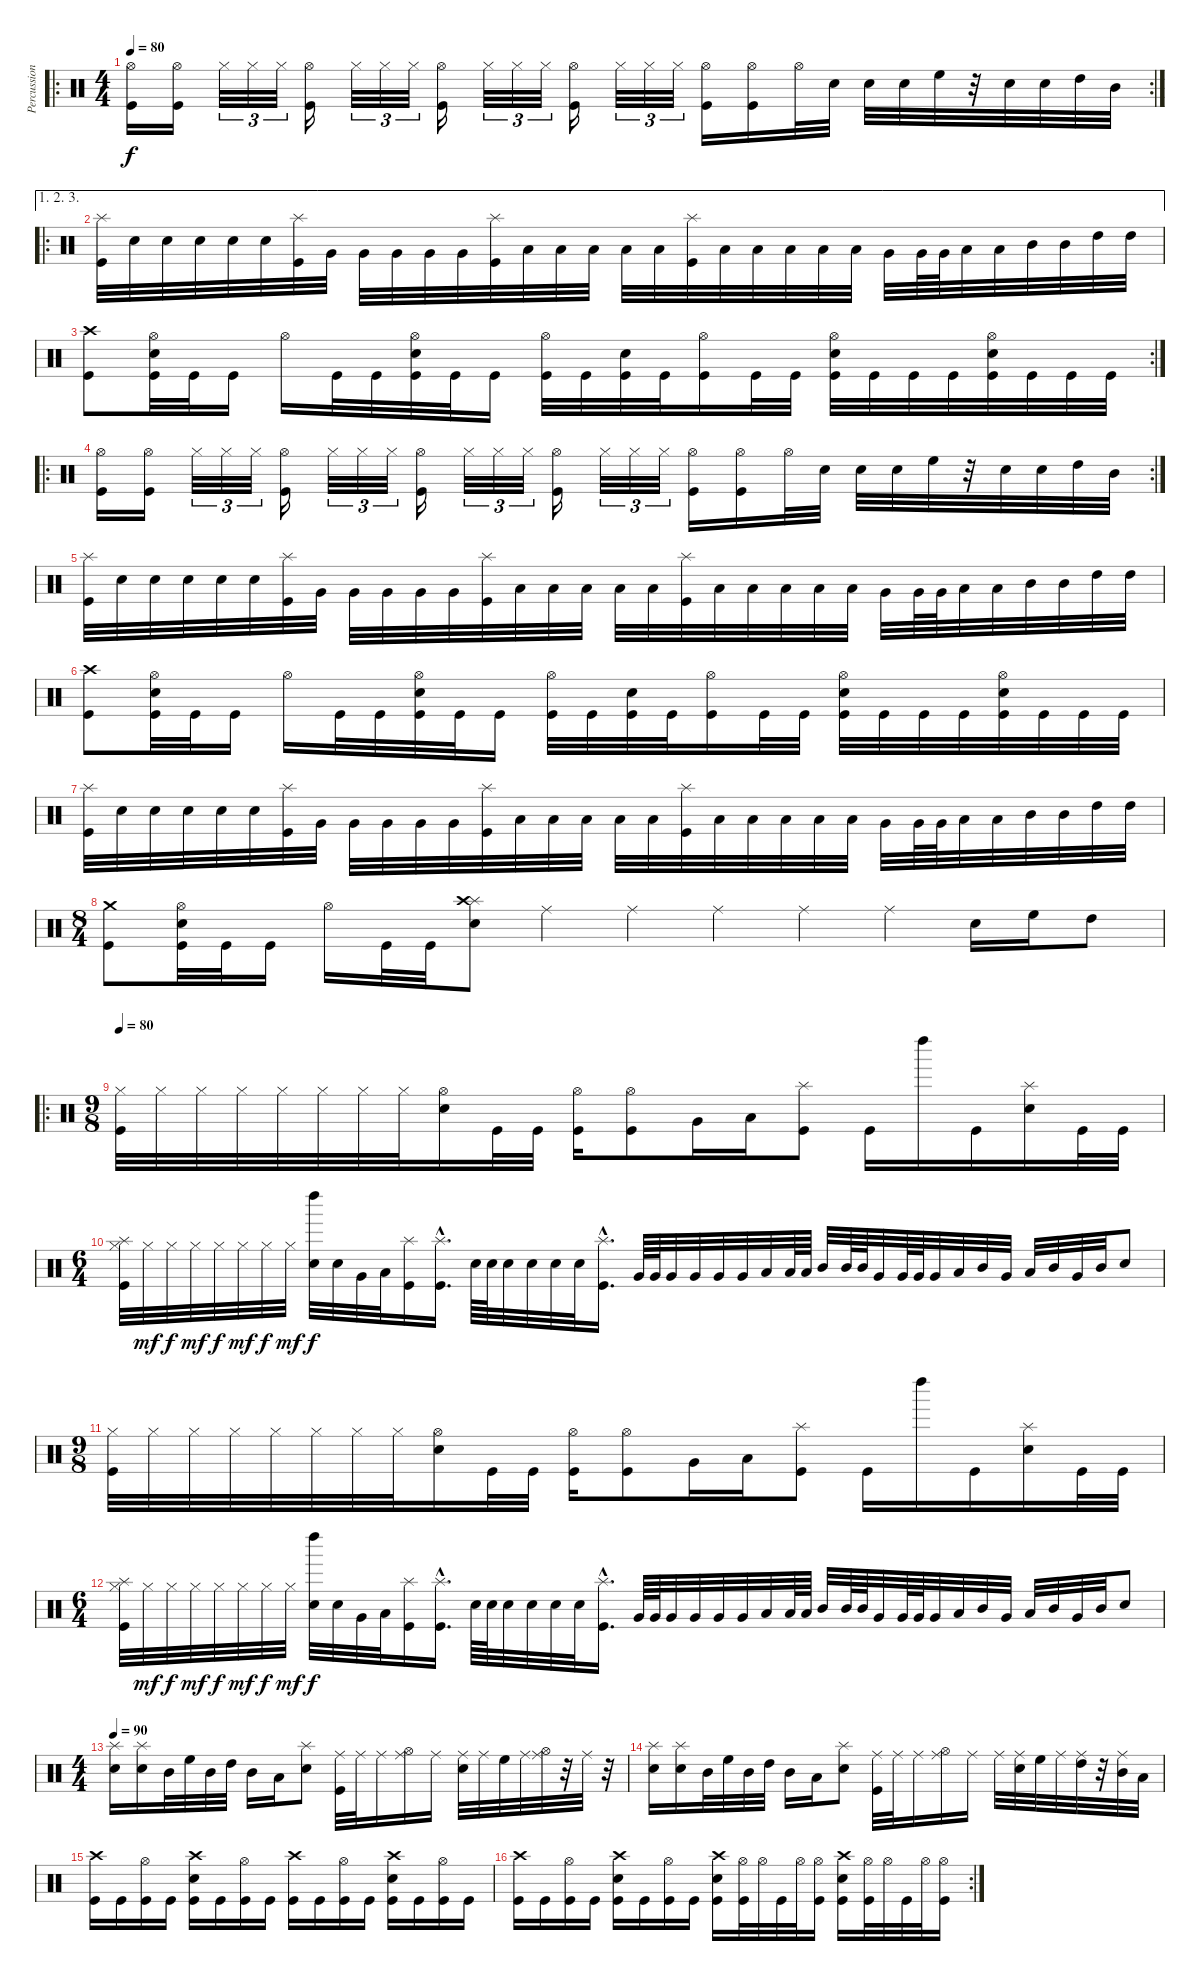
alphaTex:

\track ("Percussions" "Percussion") {instrument percussion}
\staff {score}
\articulation defaults
\ro
\rc 2
\ts (4 4)
\tempo 80
\tempo 90
\tempo 80
\clef neutral
\ks c
("Hi-Hat (open)" "Kick (hit)").16{dy f} ("Hi-Hat (open)" "Kick (hit)").16 "Hi-Hat (closed)".32{tu (3 2)} "Hi-Hat (closed)".32{tu (3 2)} "Hi-Hat (closed)".32{tu (3 2)} ("Hi-Hat (open)" "Kick (hit)").16 "Hi-Hat (closed)".32{tu (3 2)} "Hi-Hat (closed)".32{tu (3 2)} "Hi-Hat (closed)".32{tu (3 2)} ("Hi-Hat (open)" "Kick (hit)").16 "Hi-Hat (closed)".32{tu (3 2)} "Hi-Hat (closed)".32{tu (3 2)} "Hi-Hat (closed)".32{tu (3 2)} ("Hi-Hat (open)" "Kick (hit)").16 "Hi-Hat (closed)".32{tu (3 2)} "Hi-Hat (closed)".32{tu (3 2)} "Hi-Hat (closed)".32{tu (3 2)} ("Hi-Hat (open)" "Kick (hit)").16 ("Hi-Hat (open)" "Kick (hit)").16 "Hi-Hat (open)".32 "Electric Snare (hit)".32 "Electric Snare (hit)".32 "Electric Snare (hit)".32 "High Floor Tom (hit)".32 r.32 "Electric Snare (hit)".32 "Electric Snare (hit)".32 "High Tom (hit)".32 "Mid Tom (hit)".32 |
\ae (1 2 3)
\ro
("Splash (hit)" "Kick (hit)").32 "Electric Snare (hit)".32 "Electric Snare (hit)".32 "Electric Snare (hit)".32 "Electric Snare (hit)".32 "Electric Snare (hit)".32 ("Splash (hit)" "Kick (hit)").32 "Very Low Tom (hit)".32 "Very Low Tom (hit)".32 "Very Low Tom (hit)".32 "Very Low Tom (hit)".32 "Very Low Tom (hit)".32 ("Kick (hit)" "Splash (hit)").32 "Low Tom (hit)".32 "Low Tom (hit)".32 "Low Tom (hit)".32 "Low Tom (hit)".32 "Low Tom (hit)".32 ("Splash (hit)" "Kick (hit)").32 "Low Tom (hit)".32 "Low Tom (hit)".32 "Low Tom (hit)".32 "Low Tom (hit)".32 "Low Tom (hit)".32 "Very Low Tom (hit)".32 "Very Low Tom (hit)".64 "Very Low Tom (hit)".64 "Low Tom (hit)".32 "Low Tom (hit)".32 "Mid Tom (hit)".32 "Mid Tom (hit)".32 "High Tom (hit)".32 "High Tom (hit)".32 |
\rc 2
("Crash high (hit)" "Kick (hit)").8 ("Hi-Hat (open)" "Electric Snare (hit)" "Kick (hit)").32 "Kick (hit)".32 "Kick (hit)".16 "Hi-Hat (open)".16 "Kick (hit)".32 "Kick (hit)".32 ("Hi-Hat (open)" "Electric Snare (hit)" "Kick (hit)").32 "Kick (hit)".32 "Kick (hit)".16 ("Hi-Hat (open)" "Kick (hit)").32 "Kick (hit)".32 ("Electric Snare (hit)" "Kick (hit)").32 "Kick (hit)".32 ("Hi-Hat (open)" "Kick (hit)").16 "Kick (hit)".32 "Kick (hit)".32 ("Electric Snare (hit)" "Hi-Hat (open)" "Kick (hit)").32 "Kick (hit)".32 "Kick (hit)".32 "Kick (hit)".32 ("Hi-Hat (open)" "Electric Snare (hit)" "Kick (hit)").32 "Kick (hit)".32 "Kick (hit)".32 "Kick (hit)".32 |
\ro
\rc 2
("Hi-Hat (open)" "Kick (hit)").16 ("Hi-Hat (open)" "Kick (hit)").16 "Hi-Hat (closed)".32{tu (3 2)} "Hi-Hat (closed)".32{tu (3 2)} "Hi-Hat (closed)".32{tu (3 2)} ("Hi-Hat (open)" "Kick (hit)").16 "Hi-Hat (closed)".32{tu (3 2)} "Hi-Hat (closed)".32{tu (3 2)} "Hi-Hat (closed)".32{tu (3 2)} ("Hi-Hat (open)" "Kick (hit)").16 "Hi-Hat (closed)".32{tu (3 2)} "Hi-Hat (closed)".32{tu (3 2)} "Hi-Hat (closed)".32{tu (3 2)} ("Hi-Hat (open)" "Kick (hit)").16 "Hi-Hat (closed)".32{tu (3 2)} "Hi-Hat (closed)".32{tu (3 2)} "Hi-Hat (closed)".32{tu (3 2)} ("Hi-Hat (open)" "Kick (hit)").16 ("Hi-Hat (open)" "Kick (hit)").16 "Hi-Hat (open)".32 "Electric Snare (hit)".32 "Electric Snare (hit)".32 "Electric Snare (hit)".32 "High Floor Tom (hit)".32 r.32 "Electric Snare (hit)".32 "Electric Snare (hit)".32 "High Tom (hit)".32 "Mid Tom (hit)".32 |
("Splash (hit)" "Kick (hit)").32 "Electric Snare (hit)".32 "Electric Snare (hit)".32 "Electric Snare (hit)".32 "Electric Snare (hit)".32 "Electric Snare (hit)".32 ("Splash (hit)" "Kick (hit)").32 "Very Low Tom (hit)".32 "Very Low Tom (hit)".32 "Very Low Tom (hit)".32 "Very Low Tom (hit)".32 "Very Low Tom (hit)".32 ("Kick (hit)" "Splash (hit)").32 "Low Tom (hit)".32 "Low Tom (hit)".32 "Low Tom (hit)".32 "Low Tom (hit)".32 "Low Tom (hit)".32 ("Splash (hit)" "Kick (hit)").32 "Low Tom (hit)".32 "Low Tom (hit)".32 "Low Tom (hit)".32 "Low Tom (hit)".32 "Low Tom (hit)".32 "Very Low Tom (hit)".32 "Very Low Tom (hit)".64 "Very Low Tom (hit)".64 "Low Tom (hit)".32 "Low Tom (hit)".32 "Mid Tom (hit)".32 "Mid Tom (hit)".32 "High Tom (hit)".32 "High Tom (hit)".32 |
("Crash high (hit)" "Kick (hit)").8 ("Hi-Hat (open)" "Electric Snare (hit)" "Kick (hit)").32 "Kick (hit)".32 "Kick (hit)".16 "Hi-Hat (open)".16 "Kick (hit)".32 "Kick (hit)".32 ("Hi-Hat (open)" "Electric Snare (hit)" "Kick (hit)").32 "Kick (hit)".32 "Kick (hit)".16 ("Hi-Hat (open)" "Kick (hit)").32 "Kick (hit)".32 ("Electric Snare (hit)" "Kick (hit)").32 "Kick (hit)".32 ("Hi-Hat (open)" "Kick (hit)").16 "Kick (hit)".32 "Kick (hit)".32 ("Electric Snare (hit)" "Hi-Hat (open)" "Kick (hit)").32 "Kick (hit)".32 "Kick (hit)".32 "Kick (hit)".32 ("Hi-Hat (open)" "Electric Snare (hit)" "Kick (hit)").32 "Kick (hit)".32 "Kick (hit)".32 "Kick (hit)".32 |
("Splash (hit)" "Kick (hit)").32 "Electric Snare (hit)".32 "Electric Snare (hit)".32 "Electric Snare (hit)".32 "Electric Snare (hit)".32 "Electric Snare (hit)".32 ("Splash (hit)" "Kick (hit)").32 "Very Low Tom (hit)".32 "Very Low Tom (hit)".32 "Very Low Tom (hit)".32 "Very Low Tom (hit)".32 "Very Low Tom (hit)".32 ("Kick (hit)" "Splash (hit)").32 "Low Tom (hit)".32 "Low Tom (hit)".32 "Low Tom (hit)".32 "Low Tom (hit)".32 "Low Tom (hit)".32 ("Splash (hit)" "Kick (hit)").32 "Low Tom (hit)".32 "Low Tom (hit)".32 "Low Tom (hit)".32 "Low Tom (hit)".32 "Low Tom (hit)".32 "Very Low Tom (hit)".32 "Very Low Tom (hit)".64 "Very Low Tom (hit)".64 "Low Tom (hit)".32 "Low Tom (hit)".32 "Mid Tom (hit)".32 "Mid Tom (hit)".32 "High Tom (hit)".32 "High Tom (hit)".32 |
\ts (8 4)
("Crash medium (hit)" "Kick (hit)").8 ("Hi-Hat (open)" "Electric Snare (hit)" "Kick (hit)").32 "Kick (hit)".32 "Kick (hit)".16 "Hi-Hat (open)".16 "Kick (hit)".32 "Kick (hit)".32 ("Splash (hit)" "Crash high (hit)" "Electric Snare (hit)").8 "Ride (middle)".4 "Ride (middle)".4 "Ride (middle)".4 "Ride (middle)".4 "Ride (middle)".4 "Electric Snare (hit)".16 "High Floor Tom (hit)".16 "High Tom (hit)".8 |
\ro
\ts (9 8)
\tempo 80
("Kick (hit)" "Hi-Hat (closed)").32 "Hi-Hat (closed)".32 "Hi-Hat (closed)".32 "Hi-Hat (closed)".32 "Hi-Hat (closed)".32 "Hi-Hat (closed)".32 "Hi-Hat (closed)".32 "Hi-Hat (closed)".32 ("Electric Snare (hit)" "Hi-Hat (open)").16 "Kick (hit)".32 "Kick (hit)".32 ("Kick (hit)" "Hi-Hat (open)").16 ("Kick (hit)" "Hi-Hat (open)").8 "Very Low Tom (hit)".16 "Low Tom (hit)".16 ("Splash (hit)" "Kick (hit)").8 "Kick (hit)".16 "Left Maraca (hit)".16 "Kick (hit)".16 ("Splash (hit)" "Electric Snare (hit)").16 "Kick (hit)".32 "Kick (hit)".32 |
\ts (6 4)
("Splash (hit)" "Kick (hit)" "Hi-Hat (closed)").32 "Hi-Hat (closed)".32{dy mf} "Hi-Hat (closed)".32{dy f} "Hi-Hat (closed)".32{dy mf} "Hi-Hat (closed)".32{dy f} "Hi-Hat (closed)".32{dy mf} "Hi-Hat (closed)".32{dy f} "Hi-Hat (closed)".32{dy mf} ("Electric Snare (hit)" "Left Maraca (hit)").32{dy f} "Electric Snare (hit)".32 "Very Low Tom (hit)".32 "Low Tom (hit)".32 ("Splash (hit)" "Kick (hit)").16 ("Splash (hit)"{hac} "Kick (hit)"{hac}).16{d} "Electric Snare (hit)".64 "Electric Snare (hit)".64 "Electric Snare (hit)".32 "Electric Snare (hit)".32 "Electric Snare (hit)".32 "Electric Snare (hit)".32 ("Splash (hit)"{hac} "Kick (hit)"{hac}).16{d} "Very Low Tom (hit)".64 "Very Low Tom (hit)".64 "Very Low Tom (hit)".32 "Very Low Tom (hit)".32 "Very Low Tom (hit)".32 "Very Low Tom (hit)".32 "Low Tom (hit)".32 "Low Tom (hit)".64 "Low Tom (hit)".64 "Mid Tom (hit)".32 "Mid Tom (hit)".64 "Mid Tom (hit)".64 "Very Low Tom (hit)".32 "Very Low Tom (hit)".64 "Very Low Tom (hit)".64 "Very Low Tom (hit)".32 "Low Tom (hit)".32 "Mid Tom (hit)".32 "Very Low Tom (hit)".32 "Low Tom (hit)".32 "Mid Tom (hit)".32 "Very Low Tom (hit)".32 "Mid Tom (hit)".32 "Electric Snare (hit)".8 |
\ts (9 8)
("Kick (hit)" "Hi-Hat (closed)").32 "Hi-Hat (closed)".32 "Hi-Hat (closed)".32 "Hi-Hat (closed)".32 "Hi-Hat (closed)".32 "Hi-Hat (closed)".32 "Hi-Hat (closed)".32 "Hi-Hat (closed)".32 ("Electric Snare (hit)" "Hi-Hat (open)").16 "Kick (hit)".32 "Kick (hit)".32 ("Kick (hit)" "Hi-Hat (open)").16 ("Kick (hit)" "Hi-Hat (open)").8 "Very Low Tom (hit)".16 "Low Tom (hit)".16 ("Splash (hit)" "Kick (hit)").8 "Kick (hit)".16 "Left Maraca (hit)".16 "Kick (hit)".16 ("Splash (hit)" "Electric Snare (hit)").16 "Kick (hit)".32 "Kick (hit)".32 |
\ts (6 4)
("Splash (hit)" "Kick (hit)" "Hi-Hat (closed)").32 "Hi-Hat (closed)".32{dy mf} "Hi-Hat (closed)".32{dy f} "Hi-Hat (closed)".32{dy mf} "Hi-Hat (closed)".32{dy f} "Hi-Hat (closed)".32{dy mf} "Hi-Hat (closed)".32{dy f} "Hi-Hat (closed)".32{dy mf} ("Electric Snare (hit)" "Left Maraca (hit)").32{dy f} "Electric Snare (hit)".32 "Very Low Tom (hit)".32 "Low Tom (hit)".32 ("Splash (hit)" "Kick (hit)").16 ("Splash (hit)"{hac} "Kick (hit)"{hac}).16{d} "Electric Snare (hit)".64 "Electric Snare (hit)".64 "Electric Snare (hit)".32 "Electric Snare (hit)".32 "Electric Snare (hit)".32 "Electric Snare (hit)".32 ("Splash (hit)"{hac} "Kick (hit)"{hac}).16{d} "Very Low Tom (hit)".64 "Very Low Tom (hit)".64 "Very Low Tom (hit)".32 "Very Low Tom (hit)".32 "Very Low Tom (hit)".32 "Very Low Tom (hit)".32 "Low Tom (hit)".32 "Low Tom (hit)".64 "Low Tom (hit)".64 "Mid Tom (hit)".32 "Mid Tom (hit)".64 "Mid Tom (hit)".64 "Very Low Tom (hit)".32 "Very Low Tom (hit)".64 "Very Low Tom (hit)".64 "Very Low Tom (hit)".32 "Low Tom (hit)".32 "Mid Tom (hit)".32 "Very Low Tom (hit)".32 "Low Tom (hit)".32 "Mid Tom (hit)".32 "Very Low Tom (hit)".32 "Mid Tom (hit)".32 "Electric Snare (hit)".8 |
\ts (4 4)
\tempo 90
("Splash (hit)" "Electric Snare (hit)").16 ("Splash (hit)" "Electric Snare (hit)").16 "Mid Tom (hit)".32 "High Floor Tom (hit)".32 "Mid Tom (hit)".32 "High Tom (hit)".32 "Mid Tom (hit)".16 "Low Floor Tom (hit)".16 ("Splash (hit)" "Electric Snare (hit)").8 ("Ride (middle)" "Kick (hit)").32 "Ride (middle)".32 "Ride (middle)".16 ("Ride (middle)" "Hi-Hat (open)").16 "Ride (middle)".16 ("Ride (middle)" "Electric Snare (hit)").32 "Ride (middle)".32 "High Floor Tom (hit)".32 "Ride (middle)".32 ("Ride (middle)" "Hi-Hat (open)").32 r.32 "Ride (middle)".32 r.32 |
("Splash (hit)" "Electric Snare (hit)").16 ("Splash (hit)" "Electric Snare (hit)").16 "Mid Tom (hit)".32 "High Floor Tom (hit)".32 "Mid Tom (hit)".32 "High Tom (hit)".32 "Mid Tom (hit)".16 "Low Floor Tom (hit)".16 ("Splash (hit)" "Electric Snare (hit)").8 ("Ride (middle)" "Kick (hit)").32 "Ride (middle)".32 "Ride (middle)".16 ("Ride (middle)" "Hi-Hat (open)").16 "Ride (middle)".16 "Ride (middle)".32 ("Ride (middle)" "Electric Snare (hit)").32 "High Floor Tom (hit)".32 "Ride (middle)".32 ("Ride (middle)" "High Tom (hit)").32 r.32 ("Ride (middle)" "Mid Tom (hit)").32 "Low Floor Tom (hit)".32 |
("Crash high (hit)" "Kick (hit)").16 "Kick (hit)".16 ("Hi-Hat (open)" "Kick (hit)").16 "Kick (hit)".16 ("Crash high (hit)" "Electric Snare (hit)" "Kick (hit)").16 "Kick (hit)".16 ("Hi-Hat (open)" "Kick (hit)").16 "Kick (hit)".16 ("Crash high (hit)" "Kick (hit)").16 "Kick (hit)".16 ("Hi-Hat (open)" "Kick (hit)").16 "Kick (hit)".16 ("Crash high (hit)" "Electric Snare (hit)" "Kick (hit)").16 "Kick (hit)".16 ("Hi-Hat (open)" "Kick (hit)").16 "Kick (hit)".16 |
\rc 2
("Crash high (hit)" "Kick (hit)").16 "Kick (hit)".16 ("Hi-Hat (open)" "Kick (hit)").16 "Kick (hit)".16 ("Crash high (hit)" "Electric Snare (hit)" "Kick (hit)").16 "Kick (hit)".16 ("Hi-Hat (open)" "Kick (hit)").16 "Kick (hit)".16 ("Crash high (hit)" "Electric Snare (hit)" "Kick (hit)").16 ("Hi-Hat (open)" "Kick (hit)").32 "Hi-Hat (open)".32 "Kick (hit)".32 "Hi-Hat (open)".32 ("Hi-Hat (open)" "Kick (hit)").16 ("Crash high (hit)" "Kick (hit)" "Electric Snare (hit)").16 ("Hi-Hat (open)" "Kick (hit)").32 "Hi-Hat (open)".32 "Kick (hit)".32 "Hi-Hat (open)".32 ("Hi-Hat (open)" "Kick (hit)").16
